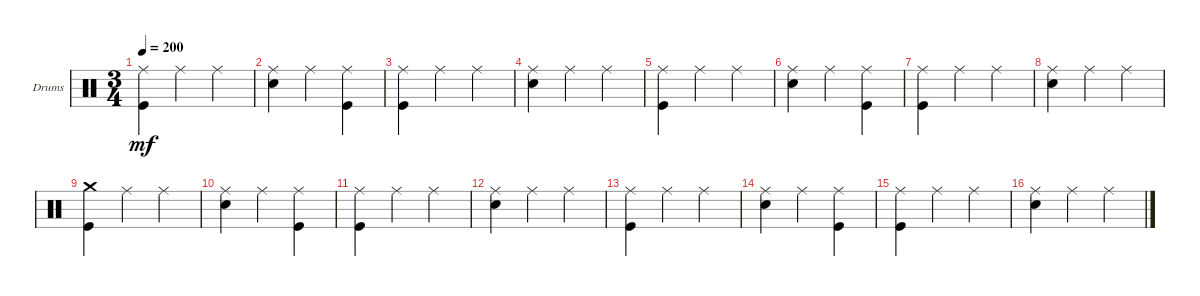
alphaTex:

\bracketExtendMode groupsimilarinstruments
\firstSystemTrackNameOrientation horizontal
\otherSystemsTrackNameOrientation horizontal
\track ("Drumkit" "Drums") {instrument percussion}
\staff {score}
\articulation defaults
\ts (3 4)
\tempo 200
\clef neutral
\scale
0.333333
\ks c
("Kick (hit)" "Ride (middle)").4{dy mf} "Ride (middle)".4 "Ride (middle)".4 |
\scale
0.333333 ("Snare (hit) 2" "Ride (middle)").4 "Ride (middle)".4 ("Ride (middle)" "Kick (hit)").4 |
\scale
0.333333 ("Kick (hit)" "Ride (middle)").4 "Ride (middle)".4 "Ride (middle)".4 |
\scale
0.333333 ("Snare (hit) 2" "Ride (middle)").4 "Ride (middle)".4 "Ride (middle)".4 |
\scale
0.333333 ("Kick (hit)" "Ride (middle)").4 "Ride (middle)".4 "Ride (middle)".4 |
\scale
0.333333 ("Snare (hit) 2" "Ride (middle)").4 "Ride (middle)".4 ("Ride (middle)" "Kick (hit)").4 |
\scale
0.333333 ("Kick (hit)" "Ride (middle)").4 "Ride (middle)".4 "Ride (middle)".4 |
\scale
0.333333 ("Snare (hit) 2" "Ride (middle)").4 "Ride (middle)".4 "Ride (middle)".4 |
\scale
0.333333 ("Kick (hit)" "Crash medium (hit)").4 "Ride (middle)".4 "Ride (middle)".4 |
\scale
0.333333 ("Snare (hit) 2" "Ride (middle)").4 "Ride (middle)".4 ("Ride (middle)" "Kick (hit)").4 |
\scale
0.333333 ("Kick (hit)" "Ride (middle)").4 "Ride (middle)".4 "Ride (middle)".4 |
\scale
0.333333 ("Snare (hit) 2" "Ride (middle)").4 "Ride (middle)".4 "Ride (middle)".4 |
\scale
0.333333 ("Kick (hit)" "Ride (middle)").4 "Ride (middle)".4 "Ride (middle)".4 |
\scale
0.333333 ("Snare (hit) 2" "Ride (middle)").4 "Ride (middle)".4 ("Ride (middle)" "Kick (hit)").4 |
\scale
0.333333 ("Kick (hit)" "Ride (middle)").4 "Ride (middle)".4 "Ride (middle)".4 |
\scale
0.333333 ("Snare (hit) 2" "Ride (middle)").4 "Ride (middle)".4 "Ride (middle)".4
